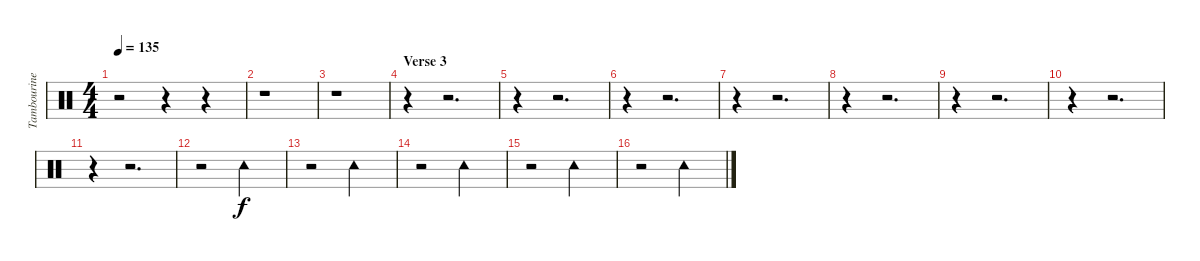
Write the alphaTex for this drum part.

\track ("Tambourine" "Tambourine") {instrument percussion}
\staff {score}
\articulation defaults
\ts (4 4)
\tempo 135
\clef neutral
\ks c
r.2{dy f} r.4 r.4 |
r.1 |
r.1 |
\section ("" "Verse 3")
r.4 r.2{d} |
r.4 r.2{d} |
r.4 r.2{d} |
r.4 r.2{d} |
r.4 r.2{d} |
r.4 r.2{d} |
r.4 r.2{d} |
r.4 r.2{d} |
r.2 "Tambourine (hit)".2 |
r.2 "Tambourine (hit)".2 |
r.2 "Tambourine (hit)".2 |
r.2 "Tambourine (hit)".2 |
r.2 "Tambourine (hit)".2
